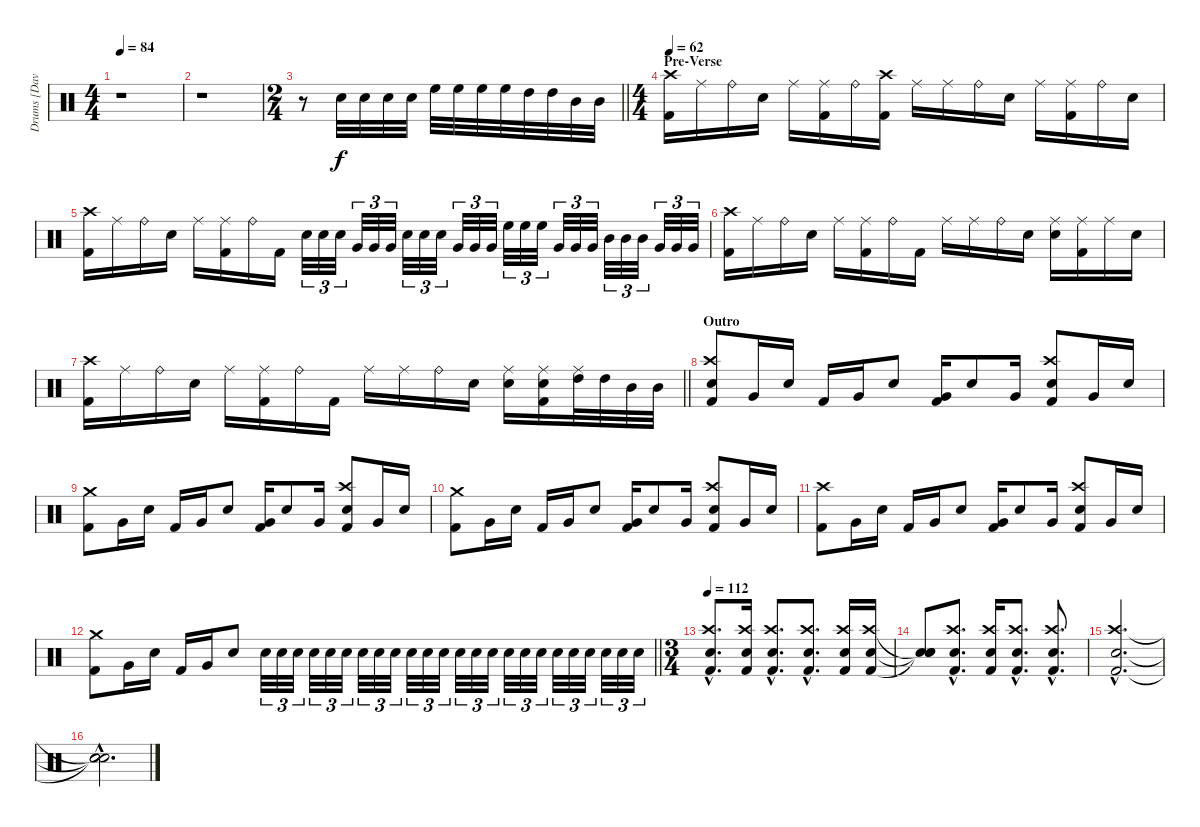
\track ("Drums [Dave Lombardo]" "Drums [Dav") {instrument percussion}
\staff {score}
\articulation defaults
\ts (4 4)
\tempo 84
\clef neutral
\ks c
r.1{dy fff} |
r.1 |
\ts (2 4)
\barLineRight lightlight
r.8 "Electric Snare (hit)".32{dy f} "Electric Snare (hit)".32 "Electric Snare (hit)".32 "Electric Snare (hit)".32 "High Floor Tom (hit)".32 "High Floor Tom (hit)".32 "High Floor Tom (hit)".32 "High Floor Tom (hit)".32 "High Tom (hit)".32 "High Tom (hit)".32 "Mid Tom (hit)".32 "Mid Tom (hit)".32 |
\ts (4 4)
\section ("" "Pre-Verse")
\tempo 62
("Crash high (hit)" "Kick (hit) 2").16 "Ride (middle)".16 "Ride (bell)".16 "Electric Snare (hit)".16 "Ride (middle)".16 ("Ride (middle)" "Kick (hit) 2").16 "Ride (bell)".16 ("Crash high (hit)" "Kick (hit) 2").16 "Ride (middle)".16 "Ride (middle)".16 "Ride (bell)".16 "Electric Snare (hit)".16 "Ride (middle)".16 ("Ride (middle)" "Kick (hit) 2").16 "Ride (bell)".16 "Electric Snare (hit)".16 |
("Crash high (hit)" "Kick (hit) 2").16 "Ride (middle)".16 "Ride (bell)".16 "Electric Snare (hit)".16 "Ride (middle)".16 ("Ride (middle)" "Kick (hit) 2").16 "Ride (bell)".16 "Kick (hit) 2".16 "Electric Snare (hit)".32{tu (3 2)} "Electric Snare (hit)".32{tu (3 2)} "Electric Snare (hit)".32{tu (3 2)} "Very Low Tom (hit)".32{tu (3 2)} "Very Low Tom (hit)".32{tu (3 2)} "Very Low Tom (hit)".32{tu (3 2)} "Electric Snare (hit)".32{tu (3 2)} "Electric Snare (hit)".32{tu (3 2)} "Electric Snare (hit)".32{tu (3 2)} "Very Low Tom (hit)".32{tu (3 2)} "Very Low Tom (hit)".32{tu (3 2)} "Very Low Tom (hit)".32{tu (3 2)} "High Floor Tom (hit)".32{tu (3 2)} "High Floor Tom (hit)".32{tu (3 2)} "High Floor Tom (hit)".32{tu (3 2)} "Very Low Tom (hit)".32{tu (3 2)} "Very Low Tom (hit)".32{tu (3 2)} "Very Low Tom (hit)".32{tu (3 2)} "Mid Tom (hit)".32{tu (3 2)} "Mid Tom (hit)".32{tu (3 2)} "Mid Tom (hit)".32{tu (3 2)} "Very Low Tom (hit)".32{tu (3 2)} "Very Low Tom (hit)".32{tu (3 2)} "Very Low Tom (hit)".32{tu (3 2)} |
("Crash high (hit)" "Kick (hit) 2").16 "Ride (middle)".16 "Ride (bell)".16 "Electric Snare (hit)".16 "Ride (middle)".16 ("Ride (middle)" "Kick (hit) 2").16 "Ride (bell)".16 "Kick (hit) 2".16 "Ride (middle)".16 "Ride (middle)".16 "Ride (bell)".16 "Electric Snare (hit)".16 ("Ride (middle)" "Electric Snare (hit)").16 ("Ride (middle)" "Kick (hit) 2").16 "Ride (middle)".16 "Electric Snare (hit)".16 |
\barLineRight lightlight
("Crash high (hit)" "Kick (hit) 2").16 "Ride (middle)".16 "Ride (bell)".16 "Electric Snare (hit)".16 "Ride (middle)".16 ("Ride (middle)" "Kick (hit) 2").16 "Ride (bell)".16 "Kick (hit) 2".16 "Ride (middle)".16 "Ride (middle)".16 "Ride (bell)".16 "Electric Snare (hit)".16 ("Ride (middle)" "Electric Snare (hit)").16 ("Ride (middle)" "Electric Snare (hit)" "Kick (hit) 2").16 ("Ride (middle)" "High Tom (hit)").32 "High Tom (hit)".32 "Mid Tom (hit)".32 "Mid Tom (hit)".32 |
\section ("" "Outro")
("Crash high (hit)" "Electric Snare (hit)" "Kick (hit) 2").8 "Very Low Tom (hit)".16 "Electric Snare (hit)".16 "Kick (hit) 2".16 "Very Low Tom (hit)".16 "Electric Snare (hit)".8 ("Very Low Tom (hit)" "Kick (hit) 2").16 "Electric Snare (hit)".8 "Very Low Tom (hit)".16 ("Crash high (hit)" "Electric Snare (hit)" "Kick (hit) 2").8 "Very Low Tom (hit)".16 "Electric Snare (hit)".16 |
("Crash medium (hit)" "Kick (hit) 2").8 "Very Low Tom (hit)".16 "Electric Snare (hit)".16 "Kick (hit) 2".16 "Very Low Tom (hit)".16 "Electric Snare (hit)".8 ("Very Low Tom (hit)" "Kick (hit) 2").16 "Electric Snare (hit)".8 "Very Low Tom (hit)".16 ("Crash high (hit)" "Electric Snare (hit)" "Kick (hit) 2").8 "Very Low Tom (hit)".16 "Electric Snare (hit)".16 |
("Crash medium (hit)" "Kick (hit) 2").8 "Very Low Tom (hit)".16 "Electric Snare (hit)".16 "Kick (hit) 2".16 "Very Low Tom (hit)".16 "Electric Snare (hit)".8 ("Very Low Tom (hit)" "Kick (hit) 2").16 "Electric Snare (hit)".8 "Very Low Tom (hit)".16 ("Crash high (hit)" "Electric Snare (hit)" "Kick (hit) 2").8 "Very Low Tom (hit)".16 "Electric Snare (hit)".16 |
("Crash high (hit)" "Kick (hit) 2").8 "Very Low Tom (hit)".16 "Electric Snare (hit)".16 "Kick (hit) 2".16 "Very Low Tom (hit)".16 "Electric Snare (hit)".8 ("Very Low Tom (hit)" "Kick (hit) 2").16 "Electric Snare (hit)".8 "Very Low Tom (hit)".16 ("Crash high (hit)" "Electric Snare (hit)" "Kick (hit) 2").8 "Very Low Tom (hit)".16 "Electric Snare (hit)".16 |
\barLineRight lightlight
("Crash medium (hit)" "Kick (hit) 2").8 "Very Low Tom (hit)".16 "Electric Snare (hit)".16 "Kick (hit) 2".16 "Very Low Tom (hit)".16 "Electric Snare (hit)".8 "Electric Snare (hit)".32{tu (3 2)} "Electric Snare (hit)".32{tu (3 2)} "Electric Snare (hit)".32{tu (3 2)} "Electric Snare (hit)".32{tu (3 2)} "Electric Snare (hit)".32{tu (3 2)} "Electric Snare (hit)".32{tu (3 2)} "Electric Snare (hit)".32{tu (3 2)} "Electric Snare (hit)".32{tu (3 2)} "Electric Snare (hit)".32{tu (3 2)} "Electric Snare (hit)".32{tu (3 2)} "Electric Snare (hit)".32{tu (3 2)} "Electric Snare (hit)".32{tu (3 2)} "Electric Snare (hit)".32{tu (3 2)} "Electric Snare (hit)".32{tu (3 2)} "Electric Snare (hit)".32{tu (3 2)} "Electric Snare (hit)".32{tu (3 2)} "Electric Snare (hit)".32{tu (3 2)} "Electric Snare (hit)".32{tu (3 2)} "Electric Snare (hit)".32{tu (3 2)} "Electric Snare (hit)".32{tu (3 2)} "Electric Snare (hit)".32{tu (3 2)} "Electric Snare (hit)".32{tu (3 2)} "Electric Snare (hit)".32{tu (3 2)} "Electric Snare (hit)".32{tu (3 2)} |
\ts (3 4)
\tempo 112
("Crash high (hit)"{hac} "Electric Snare (hit)"{hac} "Kick (hit) 2"{hac}).8{d} ("Crash high (hit)" "Electric Snare (hit)" "Kick (hit) 2").16 ("Crash high (hit)"{hac} "Electric Snare (hit)"{hac} "Kick (hit) 2"{hac}).8{d} ("Crash high (hit)"{hac} "Electric Snare (hit)"{hac} "Kick (hit) 2"{hac}).8{d} ("Crash high (hit)" "Electric Snare (hit)" "Kick (hit) 2").16 ("Crash high (hit)" "Electric Snare (hit)" "Kick (hit) 2").16 |
("Snare (hit)"{t} "Snare (hit)"{t} "Snare (hit)"{t}).8 ("Crash high (hit)"{hac} "Electric Snare (hit)"{hac} "Kick (hit) 2"{hac}).8{d} ("Crash high (hit)" "Electric Snare (hit)" "Kick (hit) 2").16 ("Crash high (hit)"{hac} "Electric Snare (hit)"{hac} "Kick (hit) 2"{hac}).8{d} ("Crash high (hit)"{hac} "Electric Snare (hit)"{hac} "Kick (hit) 2"{hac}).8{d} |
("Crash high (hit)"{hac} "Electric Snare (hit)"{hac} "Kick (hit) 2"{hac}).2{d} |
("Snare (hit)"{hac t} "Snare (hit)"{hac t} "Snare (hit)"{hac t}).2{d}
